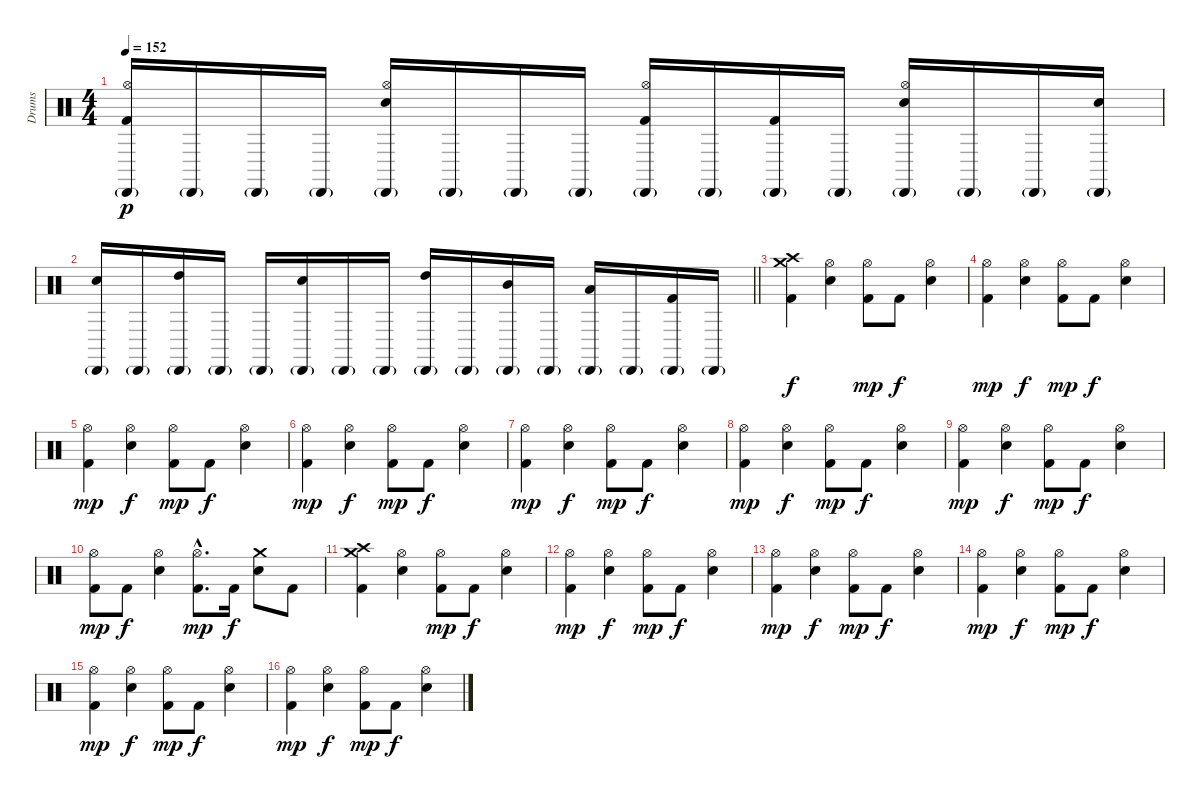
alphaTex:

\track ("Drums" "Drums") {instrument percussion}
\staff {score}
\articulation defaults
\ts (4 4)
\tempo 152
\clef neutral
\ks c
("Hi-Hat (open)" "Cabasa (hit)"{g} "Kick (hit) 2").16{dy p} "Cabasa (hit)"{g}.16 "Cabasa (hit)"{g}.16 "Cabasa (hit)"{g}.16 ("Hi-Hat (open)" "Cabasa (hit)"{g} "Electric Snare (hit)").16 "Cabasa (hit)"{g}.16 "Cabasa (hit)"{g}.16 "Cabasa (hit)"{g}.16 ("Hi-Hat (open)" "Cabasa (hit)"{g} "Kick (hit) 2").16 "Cabasa (hit)"{g}.16 ("Cabasa (hit)"{g} "Kick (hit) 2").16 "Cabasa (hit)"{g}.16 ("Hi-Hat (open)" "Cabasa (hit)"{g} "Electric Snare (hit)").16 "Cabasa (hit)"{g}.16 "Cabasa (hit)"{g}.16 ("Cabasa (hit)"{g} "Electric Snare (hit)").16 |
\barLineRight lightlight
("Cabasa (hit)"{g} "Electric Snare (hit)").16 "Cabasa (hit)"{g}.16 ("Cabasa (hit)"{g} "High Tom (hit)").16 "Cabasa (hit)"{g}.16 "Cabasa (hit)"{g}.16 ("Cabasa (hit)"{g} "Electric Snare (hit)").16 "Cabasa (hit)"{g}.16 "Cabasa (hit)"{g}.16 ("Cabasa (hit)"{g} "High Tom (hit)").16 "Cabasa (hit)"{g}.16 ("Cabasa (hit)"{g} "Mid Tom (hit)").16 "Cabasa (hit)"{g}.16 ("Cabasa (hit)"{g} "Low Tom (hit)").16 "Cabasa (hit)"{g}.16 ("Cabasa (hit)"{g} "Kick (hit) 2").16 "Cabasa (hit)"{g}.16 |
("Crash high (hit)" "Crash medium (hit)" "Kick (hit) 2").4{dy f} ("Hi-Hat (open)" "Electric Snare (hit)").4 ("Hi-Hat (open)" "Kick (hit) 2").8{dy mp} "Kick (hit) 2".8{dy f} ("Hi-Hat (open)" "Electric Snare (hit)").4 |
("Hi-Hat (open)" "Kick (hit) 2").4{dy mp} ("Hi-Hat (open)" "Electric Snare (hit)").4{dy f} ("Hi-Hat (open)" "Kick (hit) 2").8{dy mp} "Kick (hit) 2".8{dy f} ("Hi-Hat (open)" "Electric Snare (hit)").4 |
("Hi-Hat (open)" "Kick (hit) 2").4{dy mp} ("Hi-Hat (open)" "Electric Snare (hit)").4{dy f} ("Hi-Hat (open)" "Kick (hit) 2").8{dy mp} "Kick (hit) 2".8{dy f} ("Hi-Hat (open)" "Electric Snare (hit)").4 |
("Hi-Hat (open)" "Kick (hit) 2").4{dy mp} ("Hi-Hat (open)" "Electric Snare (hit)").4{dy f} ("Hi-Hat (open)" "Kick (hit) 2").8{dy mp} "Kick (hit) 2".8{dy f} ("Hi-Hat (open)" "Electric Snare (hit)").4 |
("Hi-Hat (open)" "Kick (hit) 2").4{dy mp} ("Hi-Hat (open)" "Electric Snare (hit)").4{dy f} ("Hi-Hat (open)" "Kick (hit) 2").8{dy mp} "Kick (hit) 2".8{dy f} ("Hi-Hat (open)" "Electric Snare (hit)").4 |
("Hi-Hat (open)" "Kick (hit) 2").4{dy mp} ("Hi-Hat (open)" "Electric Snare (hit)").4{dy f} ("Hi-Hat (open)" "Kick (hit) 2").8{dy mp} "Kick (hit) 2".8{dy f} ("Hi-Hat (open)" "Electric Snare (hit)").4 |
("Hi-Hat (open)" "Kick (hit) 2").4{dy mp} ("Hi-Hat (open)" "Electric Snare (hit)").4{dy f} ("Hi-Hat (open)" "Kick (hit) 2").8{dy mp} "Kick (hit) 2".8{dy f} ("Hi-Hat (open)" "Electric Snare (hit)").4 |
("Hi-Hat (open)" "Kick (hit) 2").8{dy mp} "Kick (hit) 2".8{dy f} ("Hi-Hat (open)" "Electric Snare (hit)").4 ("Hi-Hat (open)"{hac} "Kick (hit) 2"{hac}).8{d dy mp} "Kick (hit) 2".16{dy f} ("Crash medium (hit)" "Electric Snare (hit)").8 "Kick (hit) 2".8 |
("Crash high (hit)" "Crash medium (hit)" "Kick (hit) 2").4 ("Hi-Hat (open)" "Electric Snare (hit)").4 ("Hi-Hat (open)" "Kick (hit) 2").8{dy mp} "Kick (hit) 2".8{dy f} ("Hi-Hat (open)" "Electric Snare (hit)").4 |
("Hi-Hat (open)" "Kick (hit) 2").4{dy mp} ("Hi-Hat (open)" "Electric Snare (hit)").4{dy f} ("Hi-Hat (open)" "Kick (hit) 2").8{dy mp} "Kick (hit) 2".8{dy f} ("Hi-Hat (open)" "Electric Snare (hit)").4 |
("Hi-Hat (open)" "Kick (hit) 2").4{dy mp} ("Hi-Hat (open)" "Electric Snare (hit)").4{dy f} ("Hi-Hat (open)" "Kick (hit) 2").8{dy mp} "Kick (hit) 2".8{dy f} ("Hi-Hat (open)" "Electric Snare (hit)").4 |
("Hi-Hat (open)" "Kick (hit) 2").4{dy mp} ("Hi-Hat (open)" "Electric Snare (hit)").4{dy f} ("Hi-Hat (open)" "Kick (hit) 2").8{dy mp} "Kick (hit) 2".8{dy f} ("Hi-Hat (open)" "Electric Snare (hit)").4 |
("Hi-Hat (open)" "Kick (hit) 2").4{dy mp} ("Hi-Hat (open)" "Electric Snare (hit)").4{dy f} ("Hi-Hat (open)" "Kick (hit) 2").8{dy mp} "Kick (hit) 2".8{dy f} ("Hi-Hat (open)" "Electric Snare (hit)").4 |
("Hi-Hat (open)" "Kick (hit) 2").4{dy mp} ("Hi-Hat (open)" "Electric Snare (hit)").4{dy f} ("Hi-Hat (open)" "Kick (hit) 2").8{dy mp} "Kick (hit) 2".8{dy f} ("Hi-Hat (open)" "Electric Snare (hit)").4
